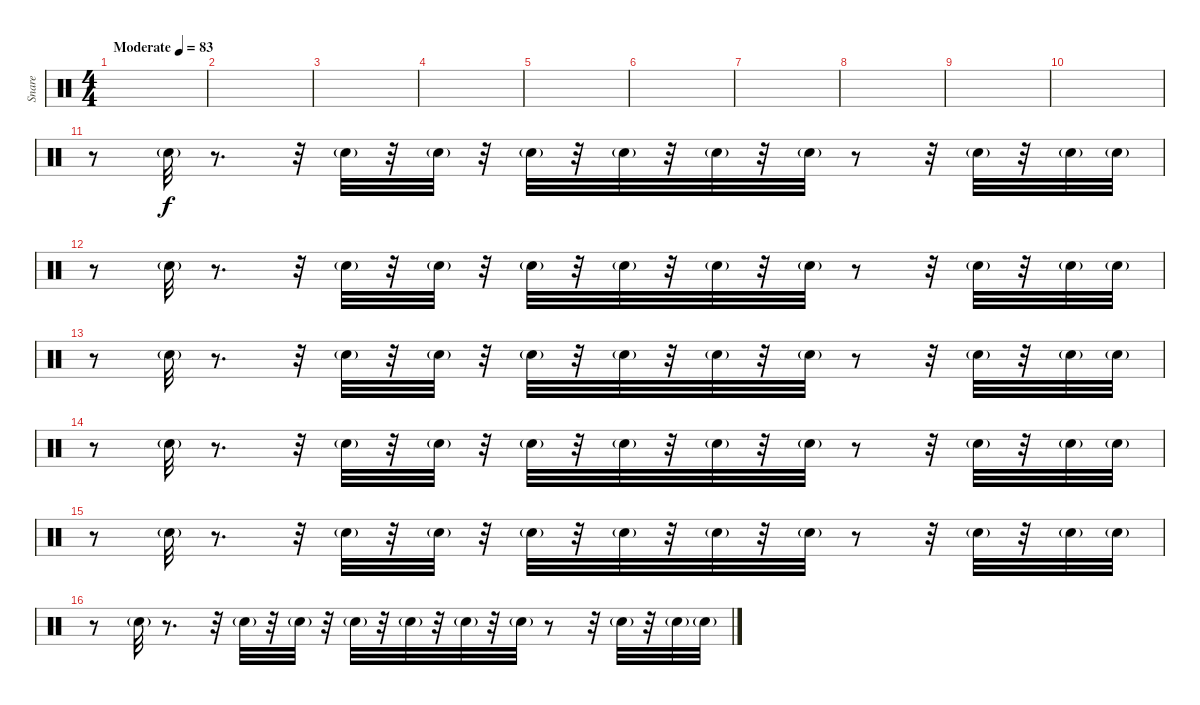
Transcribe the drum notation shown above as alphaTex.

\track ("Snare" "Snare") {instrument percussion}
\staff {score}
\articulation defaults
\ts (4 4)
\tempo (83 "Moderate")
\clef neutral
\ks c
|
|
|
|
|
|
|
|
|
|
r.8 "Electric Snare (hit)"{g}.32 r.8{d} r.32 "Electric Snare (hit)"{g}.32 r.32 "Electric Snare (hit)"{g}.32 r.32 "Electric Snare (hit)"{g}.32 r.32 "Electric Snare (hit)"{g}.32 r.32 "Electric Snare (hit)"{g}.32 r.32 "Electric Snare (hit)"{g}.32 r.8 r.32 "Electric Snare (hit)"{g}.32 r.32 "Electric Snare (hit)"{g}.32 "Electric Snare (hit)"{g}.32 |
r.8 "Electric Snare (hit)"{g}.32 r.8{d} r.32 "Electric Snare (hit)"{g}.32 r.32 "Electric Snare (hit)"{g}.32 r.32 "Electric Snare (hit)"{g}.32 r.32 "Electric Snare (hit)"{g}.32 r.32 "Electric Snare (hit)"{g}.32 r.32 "Electric Snare (hit)"{g}.32 r.8 r.32 "Electric Snare (hit)"{g}.32 r.32 "Electric Snare (hit)"{g}.32 "Electric Snare (hit)"{g}.32 |
r.8 "Electric Snare (hit)"{g}.32 r.8{d} r.32 "Electric Snare (hit)"{g}.32 r.32 "Electric Snare (hit)"{g}.32 r.32 "Electric Snare (hit)"{g}.32 r.32 "Electric Snare (hit)"{g}.32 r.32 "Electric Snare (hit)"{g}.32 r.32 "Electric Snare (hit)"{g}.32 r.8 r.32 "Electric Snare (hit)"{g}.32 r.32 "Electric Snare (hit)"{g}.32 "Electric Snare (hit)"{g}.32 |
r.8 "Electric Snare (hit)"{g}.32 r.8{d} r.32 "Electric Snare (hit)"{g}.32 r.32 "Electric Snare (hit)"{g}.32 r.32 "Electric Snare (hit)"{g}.32 r.32 "Electric Snare (hit)"{g}.32 r.32 "Electric Snare (hit)"{g}.32 r.32 "Electric Snare (hit)"{g}.32 r.8 r.32 "Electric Snare (hit)"{g}.32 r.32 "Electric Snare (hit)"{g}.32 "Electric Snare (hit)"{g}.32 |
r.8 "Electric Snare (hit)"{g}.32 r.8{d} r.32 "Electric Snare (hit)"{g}.32 r.32 "Electric Snare (hit)"{g}.32 r.32 "Electric Snare (hit)"{g}.32 r.32 "Electric Snare (hit)"{g}.32 r.32 "Electric Snare (hit)"{g}.32 r.32 "Electric Snare (hit)"{g}.32 r.8 r.32 "Electric Snare (hit)"{g}.32 r.32 "Electric Snare (hit)"{g}.32 "Electric Snare (hit)"{g}.32 |
r.8 "Electric Snare (hit)"{g}.32 r.8{d} r.32 "Electric Snare (hit)"{g}.32 r.32 "Electric Snare (hit)"{g}.32 r.32 "Electric Snare (hit)"{g}.32 r.32 "Electric Snare (hit)"{g}.32 r.32 "Electric Snare (hit)"{g}.32 r.32 "Electric Snare (hit)"{g}.32 r.8 r.32 "Electric Snare (hit)"{g}.32 r.32 "Electric Snare (hit)"{g}.32 "Electric Snare (hit)"{g}.32
